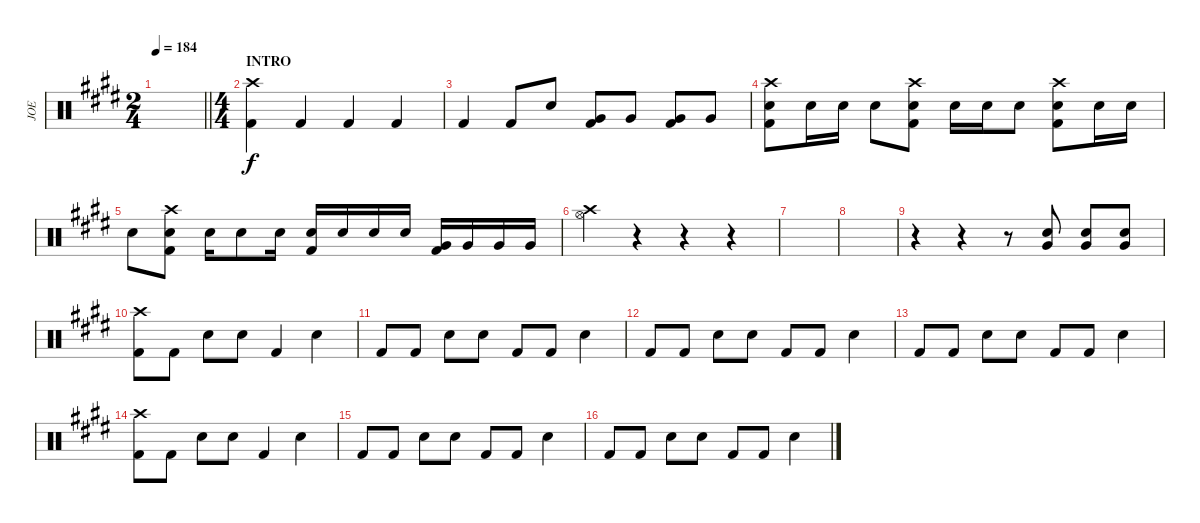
\track ("JOE" "JOE") {instrument percussion}
\staff {score}
\articulation defaults
\ts (2 4)
\tempo 184
\clef neutral
\barLineRight lightlight
\ks e
|
\ts (4 4)
\section ("" "INTRO")
("Crash high (hit)" "Kick (hit) 2").4 "Kick (hit) 2".4 "Kick (hit) 2".4 "Kick (hit) 2".4 |
"Kick (hit) 2".4 "Kick (hit) 2".8 "Snare (hit) 2".8 ("Very Low Tom (hit)" "Kick (hit) 2").8 "Very Low Tom (hit)".8 ("Very Low Tom (hit)" "Kick (hit) 2").8 "Very Low Tom (hit)".8 |
("Crash high (hit)" "Kick (hit) 2" "Snare (hit) 2").8 "Snare (hit) 2".16 "Snare (hit) 2".16 "Snare (hit) 2".8 ("Crash high (hit)" "Snare (hit) 2" "Kick (hit) 2").8 "Snare (hit) 2".16 "Snare (hit) 2".16 "Snare (hit) 2".8 ("Crash high (hit)" "Snare (hit) 2" "Kick (hit) 2").8 "Snare (hit) 2".16 "Snare (hit) 2".16 |
"Snare (hit) 2".8 ("Crash high (hit)" "Snare (hit) 2" "Kick (hit) 2").8 "Snare (hit) 2".16 "Snare (hit) 2".8 "Snare (hit) 2".16 ("Snare (hit) 2" "Kick (hit) 2").16 "Snare (hit) 2".16 "Snare (hit) 2".16 "Snare (hit) 2".16 ("Very Low Tom (hit)" "Kick (hit) 2").16 "Very Low Tom (hit)".16 "Very Low Tom (hit)".16 "Very Low Tom (hit)".16 |
("Crash high (hit)" "Hi-Hat (open)").4 r.4 r.4 r.4 |
|
|
r.4 r.4 r.8 ("Snare (hit) 2" "Very Low Tom (hit)").8 ("Snare (hit) 2" "Very Low Tom (hit)").8 ("Snare (hit) 2" "Very Low Tom (hit)").8 |
("Crash high (hit)" "Kick (hit) 2").8 "Kick (hit) 2".8 "Snare (hit) 2".8 "Snare (hit) 2".8 "Kick (hit) 2".4 "Snare (hit) 2".4 |
"Kick (hit) 2".8 "Kick (hit) 2".8 "Snare (hit) 2".8 "Snare (hit) 2".8 "Kick (hit) 2".8 "Kick (hit) 2".8 "Snare (hit) 2".4 |
"Kick (hit) 2".8 "Kick (hit) 2".8 "Snare (hit) 2".8 "Snare (hit) 2".8 "Kick (hit) 2".8 "Kick (hit) 2".8 "Snare (hit) 2".4 |
"Kick (hit) 2".8 "Kick (hit) 2".8 "Snare (hit) 2".8 "Snare (hit) 2".8 "Kick (hit) 2".8 "Kick (hit) 2".8 "Snare (hit) 2".4 |
("Crash high (hit)" "Kick (hit) 2").8 "Kick (hit) 2".8 "Snare (hit) 2".8 "Snare (hit) 2".8 "Kick (hit) 2".4 "Snare (hit) 2".4 |
"Kick (hit) 2".8 "Kick (hit) 2".8 "Snare (hit) 2".8 "Snare (hit) 2".8 "Kick (hit) 2".8 "Kick (hit) 2".8 "Snare (hit) 2".4 |
"Kick (hit) 2".8 "Kick (hit) 2".8 "Snare (hit) 2".8 "Snare (hit) 2".8 "Kick (hit) 2".8 "Kick (hit) 2".8 "Snare (hit) 2".4
